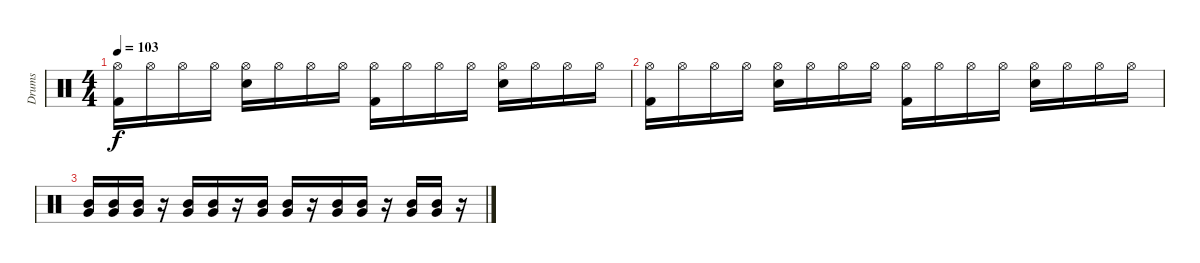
\track ("Drums" "Drums") {instrument percussion}
\staff {score}
\articulation defaults
\ts (4 4)
\tempo 103
\clef neutral
\ks c
("Hi-Hat (open)" "Kick (hit) 2").16{dy f} "Hi-Hat (open)".16 "Hi-Hat (open)".16 "Hi-Hat (open)".16 ("Hi-Hat (open)" "Electric Snare (hit)").16 "Hi-Hat (open)".16 "Hi-Hat (open)".16 "Hi-Hat (open)".16 ("Hi-Hat (open)" "Kick (hit) 2").16 "Hi-Hat (open)".16 "Hi-Hat (open)".16 "Hi-Hat (open)".16 ("Hi-Hat (open)" "Electric Snare (hit)").16 "Hi-Hat (open)".16 "Hi-Hat (open)".16 "Hi-Hat (open)".16 |
("Hi-Hat (open)" "Kick (hit) 2").16 "Hi-Hat (open)".16 "Hi-Hat (open)".16 "Hi-Hat (open)".16 ("Hi-Hat (open)" "Electric Snare (hit)").16 "Hi-Hat (open)".16 "Hi-Hat (open)".16 "Hi-Hat (open)".16 ("Hi-Hat (open)" "Kick (hit) 2").16 "Hi-Hat (open)".16 "Hi-Hat (open)".16 "Hi-Hat (open)".16 ("Hi-Hat (open)" "Electric Snare (hit)").16 "Hi-Hat (open)".16 "Hi-Hat (open)".16 "Hi-Hat (open)".16 |
("Mid Tom (hit)" "Very Low Tom (hit)").16 ("Mid Tom (hit)" "Very Low Tom (hit)").16 ("Mid Tom (hit)" "Very Low Tom (hit)").16 r.16 ("Mid Tom (hit)" "Very Low Tom (hit)").16 ("Mid Tom (hit)" "Very Low Tom (hit)").16 r.16 ("Mid Tom (hit)" "Very Low Tom (hit)").16 ("Mid Tom (hit)" "Very Low Tom (hit)").16 r.16 ("Mid Tom (hit)" "Very Low Tom (hit)").16 ("Mid Tom (hit)" "Very Low Tom (hit)").16 r.16 ("Mid Tom (hit)" "Very Low Tom (hit)").16 ("Mid Tom (hit)" "Very Low Tom (hit)").16 r.16
